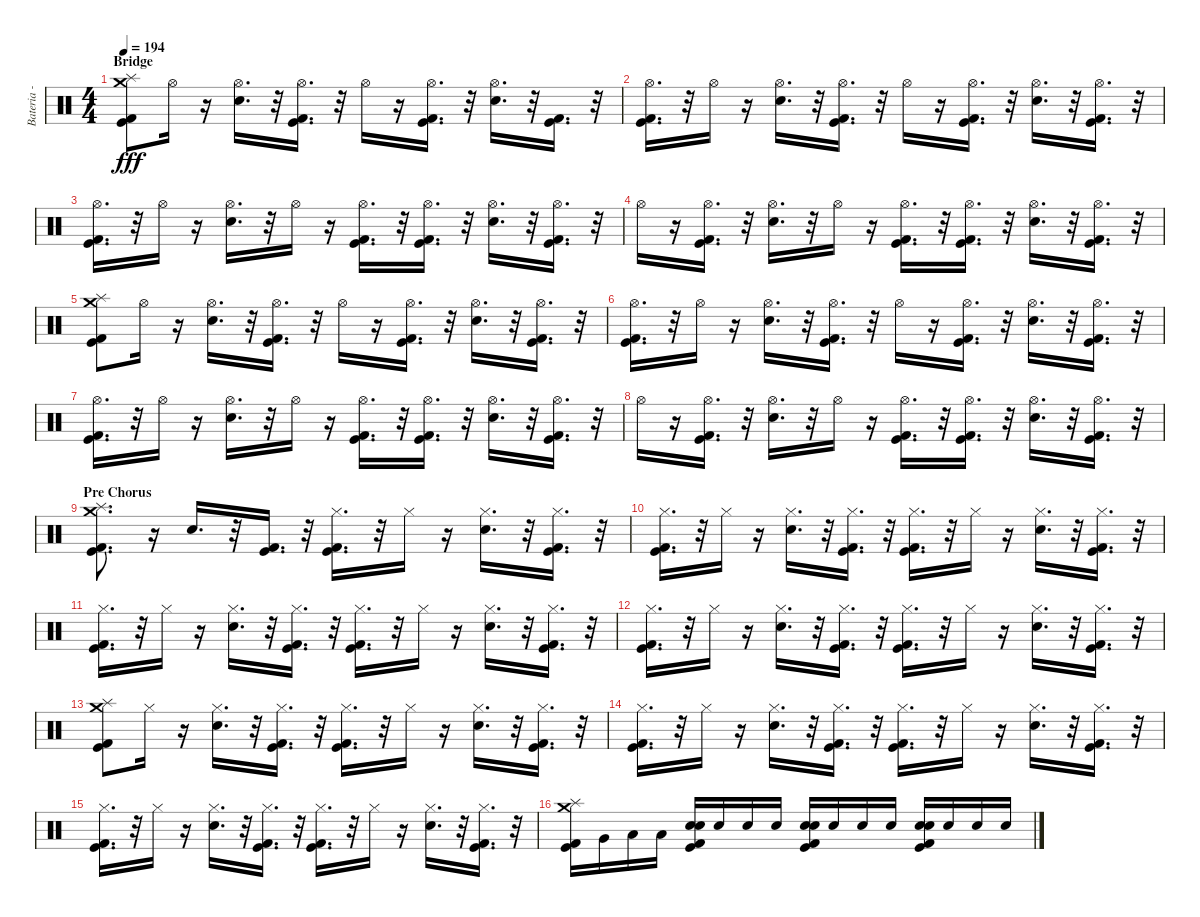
\track ("Bateria - Larzon" "Bateria - ") {instrument percussion}
\staff {score}
\articulation defaults
\ts (4 4)
\section ("" "Bridge")
\tempo 194
\clef neutral
\ks c
("Kick (hit)" "Kick (hit) 2" "Splash (hit)" "Crash medium (hit)").8{dy fff} "Hi-Hat (open)".16 r.16 ("Electric Snare (hit)" "Hi-Hat (open)").16{d} r.32 ("Kick (hit)" "Kick (hit) 2" "Hi-Hat (open)").16{d} r.32 "Hi-Hat (open)".16 r.16 ("Kick (hit)" "Kick (hit) 2" "Hi-Hat (open)").16{d} r.32 ("Electric Snare (hit)" "Hi-Hat (open)").16{d} r.32 ("Kick (hit)" "Kick (hit) 2").16{d} r.32 |
("Kick (hit)" "Kick (hit) 2" "Hi-Hat (open)").16{d} r.32 "Hi-Hat (open)".16 r.16 ("Electric Snare (hit)" "Hi-Hat (open)").16{d} r.32 ("Kick (hit)" "Kick (hit) 2" "Hi-Hat (open)").16{d} r.32 "Hi-Hat (open)".16 r.16 ("Kick (hit)" "Kick (hit) 2" "Hi-Hat (open)").16{d} r.32 ("Electric Snare (hit)" "Hi-Hat (open)").16{d} r.32 ("Kick (hit)" "Kick (hit) 2" "Hi-Hat (open)").16{d} r.32 |
("Kick (hit)" "Kick (hit) 2" "Hi-Hat (open)").16{d} r.32 "Hi-Hat (open)".16 r.16 ("Electric Snare (hit)" "Hi-Hat (open)").16{d} r.32 "Hi-Hat (open)".16 r.16 ("Kick (hit)" "Kick (hit) 2" "Hi-Hat (open)").16{d} r.32 ("Kick (hit)" "Kick (hit) 2" "Hi-Hat (open)").16{d} r.32 ("Electric Snare (hit)" "Hi-Hat (open)").16{d} r.32 ("Kick (hit)" "Kick (hit) 2" "Hi-Hat (open)").16{d} r.32 |
"Hi-Hat (open)".16 r.16 ("Kick (hit)" "Kick (hit) 2" "Hi-Hat (open)").16{d} r.32 ("Electric Snare (hit)" "Hi-Hat (open)").16{d} r.32 "Hi-Hat (open)".16 r.16 ("Kick (hit)" "Kick (hit) 2" "Hi-Hat (open)").16{d} r.32 ("Kick (hit)" "Kick (hit) 2" "Hi-Hat (open)").16{d} r.32 ("Electric Snare (hit)" "Hi-Hat (open)").16{d} r.32 ("Kick (hit)" "Kick (hit) 2" "Hi-Hat (open)").16{d} r.32 |
("Kick (hit)" "Kick (hit) 2" "Splash (hit)" "Crash medium (hit)").8 "Hi-Hat (open)".16 r.16 ("Electric Snare (hit)" "Hi-Hat (open)").16{d} r.32 ("Kick (hit)" "Kick (hit) 2" "Hi-Hat (open)").16{d} r.32 "Hi-Hat (open)".16 r.16 ("Kick (hit)" "Kick (hit) 2" "Hi-Hat (open)").16{d} r.32 ("Electric Snare (hit)" "Hi-Hat (open)").16{d} r.32 ("Kick (hit)" "Kick (hit) 2" "Hi-Hat (open)").16{d} r.32 |
("Kick (hit)" "Kick (hit) 2" "Hi-Hat (open)").16{d} r.32 "Hi-Hat (open)".16 r.16 ("Electric Snare (hit)" "Hi-Hat (open)").16{d} r.32 ("Kick (hit)" "Kick (hit) 2" "Hi-Hat (open)").16{d} r.32 "Hi-Hat (open)".16 r.16 ("Kick (hit)" "Kick (hit) 2" "Hi-Hat (open)").16{d} r.32 ("Electric Snare (hit)" "Hi-Hat (open)").16{d} r.32 ("Kick (hit)" "Kick (hit) 2" "Hi-Hat (open)").16{d} r.32 |
("Kick (hit)" "Kick (hit) 2" "Hi-Hat (open)").16{d} r.32 "Hi-Hat (open)".16 r.16 ("Electric Snare (hit)" "Hi-Hat (open)").16{d} r.32 "Hi-Hat (open)".16 r.16 ("Kick (hit)" "Kick (hit) 2" "Hi-Hat (open)").16{d} r.32 ("Kick (hit)" "Kick (hit) 2" "Hi-Hat (open)").16{d} r.32 ("Electric Snare (hit)" "Hi-Hat (open)").16{d} r.32 ("Kick (hit)" "Kick (hit) 2" "Hi-Hat (open)").16{d} r.32 |
"Hi-Hat (open)".16 r.16 ("Kick (hit)" "Kick (hit) 2" "Hi-Hat (open)").16{d} r.32 ("Electric Snare (hit)" "Hi-Hat (open)").16{d} r.32 "Hi-Hat (open)".16 r.16 ("Kick (hit)" "Kick (hit) 2" "Hi-Hat (open)").16{d} r.32 ("Kick (hit)" "Kick (hit) 2" "Hi-Hat (open)").16{d} r.32 ("Electric Snare (hit)" "Hi-Hat (open)").16{d} r.32 ("Kick (hit)" "Kick (hit) 2" "Hi-Hat (open)").16{d} r.32 |
\section ("" "Pre Chorus")
("Kick (hit)" "Kick (hit) 2" "Splash (hit)" "Crash medium (hit)").8{d} r.16 "Electric Snare (hit)".16{d} r.32 ("Kick (hit)" "Kick (hit) 2").16{d} r.32 ("Kick (hit)" "Kick (hit) 2" "Hi-Hat (closed)").16{d} r.32 "Hi-Hat (closed)".16 r.16 ("Hi-Hat (closed)" "Electric Snare (hit)").16{d} r.32 ("Hi-Hat (closed)" "Kick (hit)" "Kick (hit) 2").16{d} r.32 |
("Kick (hit)" "Kick (hit) 2" "Hi-Hat (closed)").16{d} r.32 "Hi-Hat (closed)".16 r.16 ("Hi-Hat (closed)" "Electric Snare (hit)").16{d} r.32 ("Hi-Hat (closed)" "Kick (hit)" "Kick (hit) 2").16{d} r.32 ("Kick (hit)" "Kick (hit) 2" "Hi-Hat (closed)").16{d} r.32 "Hi-Hat (closed)".16 r.16 ("Hi-Hat (closed)" "Electric Snare (hit)").16{d} r.32 ("Hi-Hat (closed)" "Kick (hit)" "Kick (hit) 2").16{d} r.32 |
("Kick (hit)" "Kick (hit) 2" "Hi-Hat (closed)").16{d} r.32 "Hi-Hat (closed)".16 r.16 ("Hi-Hat (closed)" "Electric Snare (hit)").16{d} r.32 ("Hi-Hat (closed)" "Kick (hit)" "Kick (hit) 2").16{d} r.32 ("Kick (hit)" "Kick (hit) 2" "Hi-Hat (closed)").16{d} r.32 "Hi-Hat (closed)".16 r.16 ("Hi-Hat (closed)" "Electric Snare (hit)").16{d} r.32 ("Hi-Hat (closed)" "Kick (hit)" "Kick (hit) 2").16{d} r.32 |
("Kick (hit)" "Kick (hit) 2" "Hi-Hat (closed)").16{d} r.32 "Hi-Hat (closed)".16 r.16 ("Hi-Hat (closed)" "Electric Snare (hit)").16{d} r.32 ("Hi-Hat (closed)" "Kick (hit)" "Kick (hit) 2").16{d} r.32 ("Kick (hit)" "Kick (hit) 2" "Hi-Hat (closed)").16{d} r.32 "Hi-Hat (closed)".16 r.16 ("Hi-Hat (closed)" "Electric Snare (hit)").16{d} r.32 ("Hi-Hat (closed)" "Kick (hit)" "Kick (hit) 2").16{d} r.32 |
("Kick (hit)" "Kick (hit) 2" "Splash (hit)" "Crash medium (hit)").8 "Hi-Hat (closed)".16 r.16 ("Hi-Hat (closed)" "Electric Snare (hit)").16{d} r.32 ("Hi-Hat (closed)" "Kick (hit)" "Kick (hit) 2").16{d} r.32 ("Kick (hit)" "Kick (hit) 2" "Hi-Hat (closed)").16{d} r.32 "Hi-Hat (closed)".16 r.16 ("Hi-Hat (closed)" "Electric Snare (hit)").16{d} r.32 ("Hi-Hat (closed)" "Kick (hit)" "Kick (hit) 2").16{d} r.32 |
("Kick (hit)" "Kick (hit) 2" "Hi-Hat (closed)").16{d} r.32 "Hi-Hat (closed)".16 r.16 ("Hi-Hat (closed)" "Electric Snare (hit)").16{d} r.32 ("Hi-Hat (closed)" "Kick (hit)" "Kick (hit) 2").16{d} r.32 ("Kick (hit)" "Kick (hit) 2" "Hi-Hat (closed)").16{d} r.32 "Hi-Hat (closed)".16 r.16 ("Hi-Hat (closed)" "Electric Snare (hit)").16{d} r.32 ("Hi-Hat (closed)" "Kick (hit)" "Kick (hit) 2").16{d} r.32 |
("Kick (hit)" "Kick (hit) 2" "Hi-Hat (closed)").16{d} r.32 "Hi-Hat (closed)".16 r.16 ("Hi-Hat (closed)" "Electric Snare (hit)").16{d} r.32 ("Hi-Hat (closed)" "Kick (hit)" "Kick (hit) 2").16{d} r.32 ("Kick (hit)" "Kick (hit) 2" "Hi-Hat (closed)").16{d} r.32 "Hi-Hat (closed)".16 r.16 ("Hi-Hat (closed)" "Electric Snare (hit)").16{d} r.32 ("Hi-Hat (closed)" "Kick (hit)" "Kick (hit) 2").16{d} r.32 |
("Splash (hit)" "Crash medium (hit)" "Kick (hit) 2" "Kick (hit)").16 "Very Low Tom (hit)".16 "Low Floor Tom (hit)".16 "Low Floor Tom (hit)".16 ("Kick (hit)" "Kick (hit) 2" "Electric Snare (hit)" "Snare (hit) 2").16 "Electric Snare (hit)".16 "Electric Snare (hit)".16 "Electric Snare (hit)".16 ("Kick (hit)" "Kick (hit) 2" "Electric Snare (hit)" "Snare (hit) 2").16 "Electric Snare (hit)".16 "Electric Snare (hit)".16 "Electric Snare (hit)".16 ("Kick (hit)" "Kick (hit) 2" "Electric Snare (hit)" "Snare (hit) 2").16 "Electric Snare (hit)".16 "Electric Snare (hit)".16 "Electric Snare (hit)".16
